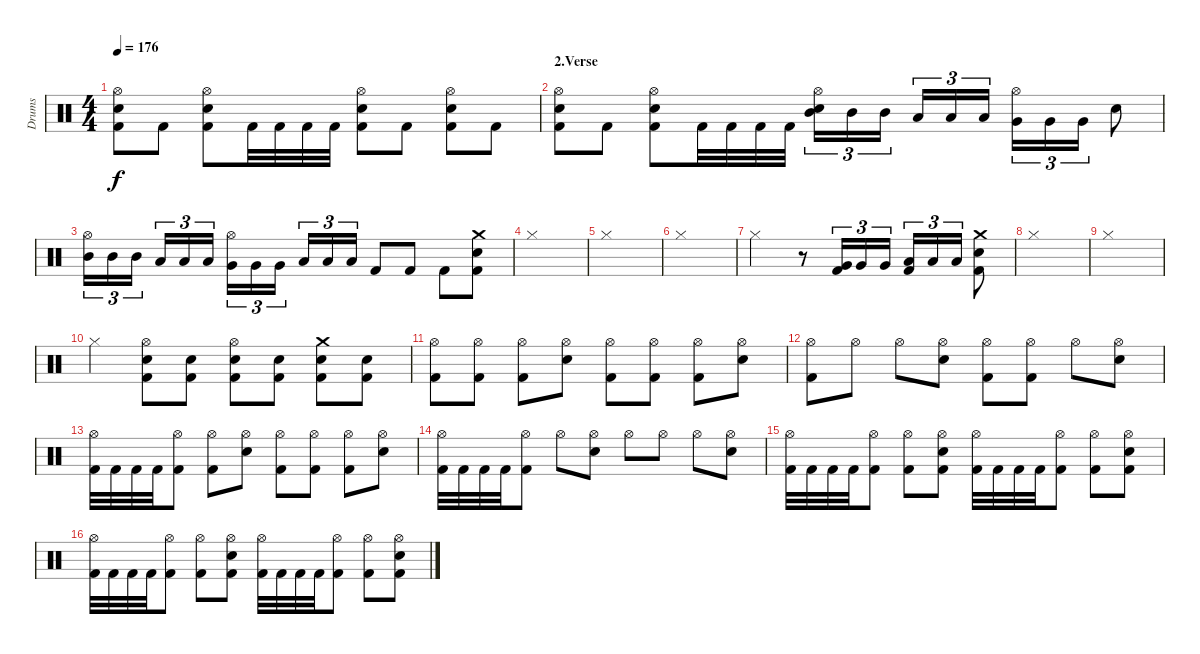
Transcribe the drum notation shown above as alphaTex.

\track ("Drums" "Drums") {instrument percussion}
\staff {score}
\articulation defaults
\ts (4 4)
\tempo 176
\clef neutral
\ks c
("Hi-Hat (open)" "Snare (hit) 2" "Kick (hit) 2").8{dy f} "Kick (hit) 2".8 ("Hi-Hat (open)" "Snare (hit) 2" "Kick (hit) 2").8 "Kick (hit) 2".32 "Kick (hit) 2".32 "Kick (hit) 2".32 "Kick (hit) 2".32 ("Hi-Hat (open)" "Snare (hit) 2" "Kick (hit) 2").8 "Kick (hit) 2".8 ("Hi-Hat (open)" "Snare (hit) 2" "Kick (hit) 2").8 "Kick (hit) 2".8 |
\section ("" "2.Verse")
("Hi-Hat (open)" "Snare (hit) 2" "Kick (hit) 2").8 "Kick (hit) 2".8 ("Hi-Hat (open)" "Snare (hit) 2" "Kick (hit) 2").8 "Kick (hit) 2".32 "Kick (hit) 2".32 "Kick (hit) 2".32 "Kick (hit) 2".32 ("Hi-Hat (open)" "Mid Tom (hit)" "Snare (hit) 2").16{tu (3 2)} "Mid Tom (hit)".16{tu (3 2)} "Mid Tom (hit)".16{tu (3 2)} "Low Tom (hit)".16{tu (3 2)} "Low Tom (hit)".16{tu (3 2)} "Low Tom (hit)".16{tu (3 2)} ("Hi-Hat (open)" "Very Low Tom (hit)").16{tu (3 2)} "Very Low Tom (hit)".16{tu (3 2)} "Very Low Tom (hit)".16{tu (3 2)} "Snare (hit) 2".8 |
("Hi-Hat (open)" "Mid Tom (hit)").16{tu (3 2)} "Mid Tom (hit)".16{tu (3 2)} "Mid Tom (hit)".16{tu (3 2)} "Low Tom (hit)".16{tu (3 2)} "Low Tom (hit)".16{tu (3 2)} "Low Tom (hit)".16{tu (3 2)} ("Hi-Hat (open)" "Very Low Tom (hit)").16{tu (3 2)} "Very Low Tom (hit)".16{tu (3 2)} "Very Low Tom (hit)".16{tu (3 2)} "Low Floor Tom (hit)".16{tu (3 2)} "Low Floor Tom (hit)".16{tu (3 2)} "Low Floor Tom (hit)".16{tu (3 2)} "Kick (hit) 2".8 "Kick (hit) 2".8 "Kick (hit) 2".8 ("Crash medium (hit)" "Snare (hit) 2" "Kick (hit) 2").8 |
"Hi-Hat (closed)".1 |
"Hi-Hat (closed)".1 |
"Hi-Hat (closed)".1 |
"Hi-Hat (closed)".2 r.8 ("Very Low Tom (hit)" "Kick (hit) 2").16{tu (3 2)} "Very Low Tom (hit)".16{tu (3 2)} "Very Low Tom (hit)".16{tu (3 2)} ("Low Floor Tom (hit)" "Kick (hit) 2").16{tu (3 2)} "Low Floor Tom (hit)".16{tu (3 2)} "Low Floor Tom (hit)".16{tu (3 2)} ("Crash medium (hit)" "Snare (hit) 2" "Kick (hit) 2").8 |
"Hi-Hat (closed)".1 |
"Hi-Hat (closed)".1 |
"Hi-Hat (closed)".4 ("Hi-Hat (open)" "Snare (hit) 2" "Kick (hit) 2").8 ("Snare (hit) 2" "Kick (hit) 2").8 ("Hi-Hat (open)" "Snare (hit) 2" "Kick (hit) 2").8 ("Snare (hit) 2" "Kick (hit) 2").8 ("Crash medium (hit)" "Snare (hit) 2" "Kick (hit) 2").8 ("Snare (hit) 2" "Kick (hit) 2").8 |
("Hi-Hat (open)" "Kick (hit) 2").8 ("Hi-Hat (open)" "Kick (hit) 2").8 ("Hi-Hat (open)" "Kick (hit) 2").8 ("Hi-Hat (open)" "Snare (hit) 2").8 ("Hi-Hat (open)" "Kick (hit) 2").8 ("Hi-Hat (open)" "Kick (hit) 2").8 ("Hi-Hat (open)" "Kick (hit) 2").8 ("Hi-Hat (open)" "Snare (hit) 2").8 |
("Hi-Hat (open)" "Kick (hit) 2").8 "Hi-Hat (open)".8 "Hi-Hat (open)".8 ("Hi-Hat (open)" "Snare (hit) 2").8 ("Hi-Hat (open)" "Kick (hit) 2").8 ("Hi-Hat (open)" "Kick (hit) 2").8 "Hi-Hat (open)".8 ("Hi-Hat (open)" "Snare (hit) 2").8 |
("Hi-Hat (open)" "Kick (hit) 2").32 "Kick (hit) 2".32 "Kick (hit) 2".32 "Kick (hit) 2".32 ("Hi-Hat (open)" "Kick (hit) 2").8 ("Hi-Hat (open)" "Kick (hit) 2").8 ("Hi-Hat (open)" "Snare (hit) 2").8 ("Hi-Hat (open)" "Kick (hit) 2").8 ("Hi-Hat (open)" "Kick (hit) 2").8 ("Hi-Hat (open)" "Kick (hit) 2").8 ("Hi-Hat (open)" "Snare (hit) 2").8 |
("Hi-Hat (open)" "Kick (hit) 2").32 "Kick (hit) 2".32 "Kick (hit) 2".32 "Kick (hit) 2".32 ("Hi-Hat (open)" "Kick (hit) 2").8 "Hi-Hat (open)".8 ("Hi-Hat (open)" "Snare (hit) 2").8 "Hi-Hat (open)".8 "Hi-Hat (open)".8 "Hi-Hat (open)".8 ("Hi-Hat (open)" "Snare (hit) 2").8 |
("Hi-Hat (open)" "Kick (hit) 2").32 "Kick (hit) 2".32 "Kick (hit) 2".32 "Kick (hit) 2".32 ("Hi-Hat (open)" "Kick (hit) 2").8 ("Hi-Hat (open)" "Kick (hit) 2").8 ("Hi-Hat (open)" "Snare (hit) 2" "Kick (hit) 2").8 ("Hi-Hat (open)" "Kick (hit) 2").32 "Kick (hit) 2".32 "Kick (hit) 2".32 "Kick (hit) 2".32 ("Hi-Hat (open)" "Kick (hit) 2").8 ("Hi-Hat (open)" "Kick (hit) 2").8 ("Hi-Hat (open)" "Snare (hit) 2" "Kick (hit) 2").8 |
("Hi-Hat (open)" "Kick (hit) 2").32 "Kick (hit) 2".32 "Kick (hit) 2".32 "Kick (hit) 2".32 ("Hi-Hat (open)" "Kick (hit) 2").8 ("Hi-Hat (open)" "Kick (hit) 2").8 ("Hi-Hat (open)" "Snare (hit) 2" "Kick (hit) 2").8 ("Hi-Hat (open)" "Kick (hit) 2").32 "Kick (hit) 2".32 "Kick (hit) 2".32 "Kick (hit) 2".32 ("Hi-Hat (open)" "Kick (hit) 2").8 ("Hi-Hat (open)" "Kick (hit) 2").8 ("Hi-Hat (open)" "Snare (hit) 2" "Kick (hit) 2").8
